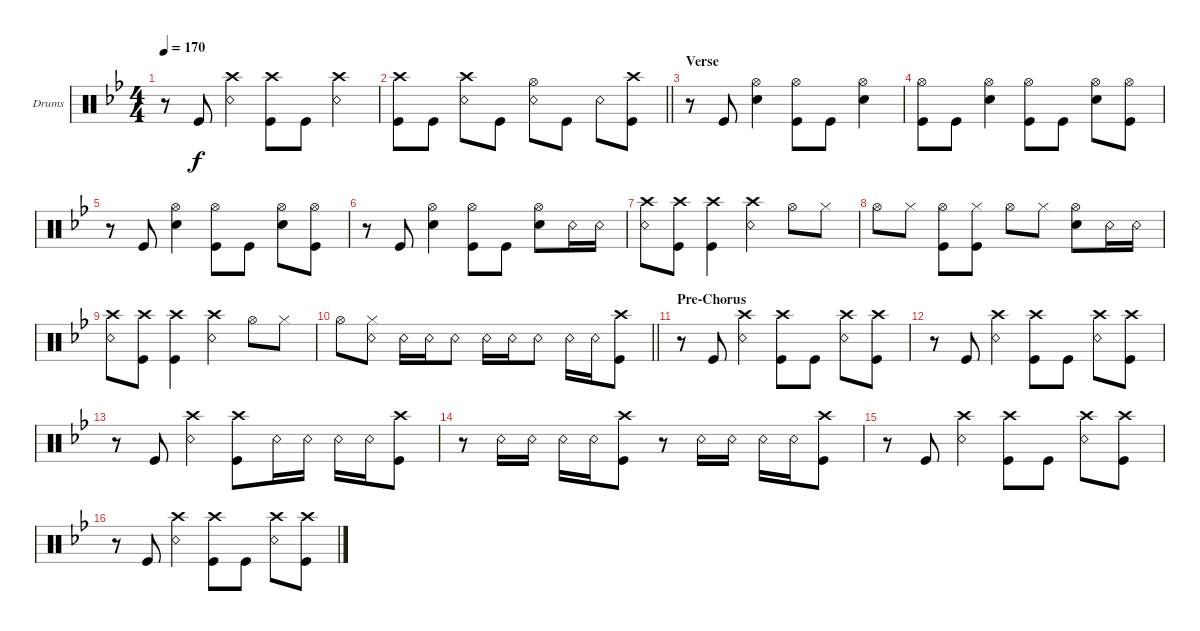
\defaultSystemsLayout 4
\bracketExtendMode groupsimilarinstruments
\firstSystemTrackNameOrientation horizontal
\otherSystemsTrackNameOrientation horizontal
\track ("Drums" "Drums") {instrument percussion}
\staff {score}
\articulation defaults
\ts (4 4)
\tempo 170
\clef neutral
\ks bb
r.8{dy f} "Kick (hit)".8 ("Snare (rim shot)" "Crash high (hit)").4 ("Kick (hit)" "Crash high (hit)").8 "Kick (hit)".8 ("Snare (rim shot)" "Crash high (hit)").4 |
\barLineRight lightlight
("Kick (hit)" "Crash high (hit)").8 "Kick (hit)".8 ("Snare (rim shot)" "Crash high (hit)").8 "Kick (hit)".8 ("Snare (rim shot)" "Hi-Hat (open)").8 "Kick (hit)".8 "Snare (rim shot)".8 ("Kick (hit)" "Crash high (hit)").8 |
\section ("" "Verse")
r.8 "Kick (hit)".8 ("Snare (hit) 2" "Hi-Hat (open)").4 ("Kick (hit)" "Hi-Hat (open)").8 "Kick (hit)".8 ("Snare (hit) 2" "Hi-Hat (open)").4 |
("Kick (hit)" "Hi-Hat (open)").8 "Kick (hit)".8 ("Snare (hit) 2" "Hi-Hat (open)").4 ("Kick (hit)" "Hi-Hat (open)").8 "Kick (hit)".8 ("Snare (hit) 2" "Hi-Hat (open)").8 ("Kick (hit)" "Hi-Hat (open)").8 |
r.8 "Kick (hit)".8 ("Snare (hit) 2" "Hi-Hat (open)").4 ("Kick (hit)" "Hi-Hat (open)").8 "Kick (hit)".8 ("Snare (hit) 2" "Hi-Hat (open)").8 ("Kick (hit)" "Hi-Hat (open)").8 |
r.8 "Kick (hit)".8 ("Snare (hit) 2" "Hi-Hat (open)").4 ("Kick (hit)" "Hi-Hat (open)").8 "Kick (hit)".8 ("Snare (hit) 2" "Hi-Hat (open)").8 "Snare (rim shot)".16 "Snare (rim shot)".16 |
("Snare (rim shot)" "Crash high (hit)").8 ("Kick (hit)" "Crash high (hit)").8 ("Crash high (hit)" "Kick (hit)").4 ("Crash high (hit)" "Snare (rim shot)").4 "Hi-Hat (open)".8 "Hi-Hat (closed)".8 |
"Hi-Hat (open)".8 "Hi-Hat (closed)".8 ("Hi-Hat (open)" "Kick (hit)").8 ("Hi-Hat (closed)" "Kick (hit)").8 "Hi-Hat (open)".8 "Hi-Hat (closed)".8 ("Hi-Hat (open)" "Snare (hit) 2").8 "Snare (rim shot)".16 "Snare (rim shot)".16 |
("Snare (rim shot)" "Crash high (hit)").8 ("Kick (hit)" "Crash high (hit)").8 ("Crash high (hit)" "Kick (hit)").4 ("Crash high (hit)" "Snare (rim shot)").4 "Hi-Hat (open)".8 "Hi-Hat (closed)".8 |
\barLineRight lightlight "Hi-Hat (open)".8
("Snare (rim shot)" "Hi-Hat (closed)").8 "Snare (rim shot)".16 "Snare (rim shot)".16 "Snare (rim shot)".8 "Snare (rim shot)".16 "Snare (rim shot)".16 "Snare (rim shot)".8 "Snare (rim shot)".16 "Snare (rim shot)".16 ("Kick (hit)" "Crash high (hit)").8 |
\section ("" "Pre-Chorus")
r.8 "Kick (hit)".8 ("Snare (rim shot)" "Crash high (hit)").4 ("Kick (hit)" "Crash high (hit)").8 "Kick (hit)".8 ("Snare (rim shot)" "Crash high (hit)").8 ("Kick (hit)" "Crash high (hit)").8 |
r.8 "Kick (hit)".8 ("Snare (rim shot)" "Crash high (hit)").4 ("Kick (hit)" "Crash high (hit)").8 "Kick (hit)".8 ("Snare (rim shot)" "Crash high (hit)").8 ("Kick (hit)" "Crash high (hit)").8 |
r.8 "Kick (hit)".8 ("Snare (rim shot)" "Crash high (hit)").4 ("Kick (hit)" "Crash high (hit)").8 "Snare (rim shot)".16 "Snare (rim shot)".16 "Snare (rim shot)".16 "Snare (rim shot)".16 ("Kick (hit)" "Crash high (hit)").8 |
r.8 "Snare (rim shot)".16 "Snare (rim shot)".16 "Snare (rim shot)".16 "Snare (rim shot)".16 ("Kick (hit)" "Crash high (hit)").8 r.8 "Snare (rim shot)".16 "Snare (rim shot)".16 "Snare (rim shot)".16 "Snare (rim shot)".16 ("Kick (hit)" "Crash high (hit)").8 |
r.8 "Kick (hit)".8 ("Snare (rim shot)" "Crash high (hit)").4 ("Kick (hit)" "Crash high (hit)").8 "Kick (hit)".8 ("Snare (rim shot)" "Crash high (hit)").8 ("Kick (hit)" "Crash high (hit)").8 |
r.8 "Kick (hit)".8 ("Snare (rim shot)" "Crash high (hit)").4 ("Kick (hit)" "Crash high (hit)").8 "Kick (hit)".8 ("Snare (rim shot)" "Crash high (hit)").8 ("Kick (hit)" "Crash high (hit)").8
